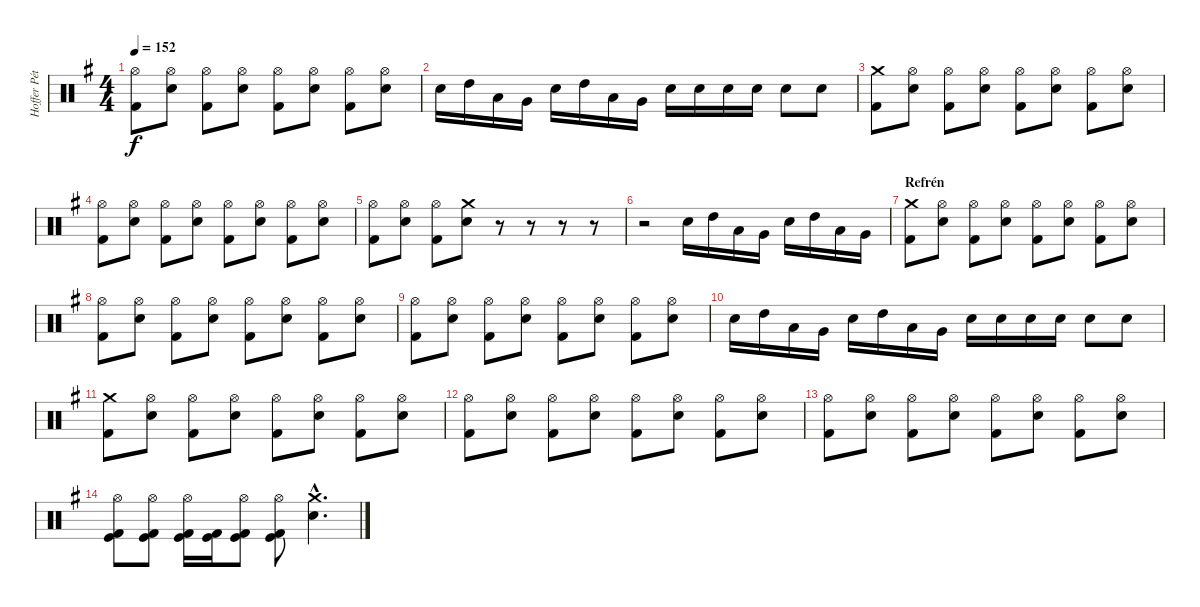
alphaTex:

\track ("Hoffer Péter" "Hoffer Pét") {instrument percussion}
\staff {score}
\articulation defaults
\ts (4 4)
\tempo 152
\clef neutral
\ks eminor
("Hi-Hat (open)" "Kick (hit) 2").8{dy f} ("Hi-Hat (open)" "Snare (hit) 2").8 ("Hi-Hat (open)" "Kick (hit) 2").8 ("Hi-Hat (open)" "Snare (hit) 2").8 ("Hi-Hat (open)" "Kick (hit) 2").8 ("Hi-Hat (open)" "Snare (hit) 2").8 ("Hi-Hat (open)" "Kick (hit) 2").8 ("Hi-Hat (open)" "Snare (hit) 2").8 |
"Snare (hit) 2".16 "High Tom (hit)".16 "Low Tom (hit)".16 "Very Low Tom (hit)".16 "Snare (hit) 2".16 "High Tom (hit)".16 "Low Tom (hit)".16 "Very Low Tom (hit)".16 "Snare (hit) 2".16 "Snare (hit) 2".16 "Snare (hit) 2".16 "Snare (hit) 2".16 "Snare (hit) 2".8 "Snare (hit) 2".8 |
("Crash medium (hit)" "Kick (hit) 2").8 ("Hi-Hat (open)" "Snare (hit) 2").8 ("Hi-Hat (open)" "Kick (hit) 2").8 ("Hi-Hat (open)" "Snare (hit) 2").8 ("Hi-Hat (open)" "Kick (hit) 2").8 ("Hi-Hat (open)" "Snare (hit) 2").8 ("Hi-Hat (open)" "Kick (hit) 2").8 ("Hi-Hat (open)" "Snare (hit) 2").8 |
("Hi-Hat (open)" "Kick (hit) 2").8 ("Hi-Hat (open)" "Snare (hit) 2").8 ("Hi-Hat (open)" "Kick (hit) 2").8 ("Hi-Hat (open)" "Snare (hit) 2").8 ("Hi-Hat (open)" "Kick (hit) 2").8 ("Hi-Hat (open)" "Snare (hit) 2").8 ("Hi-Hat (open)" "Kick (hit) 2").8 ("Hi-Hat (open)" "Snare (hit) 2").8 |
("Hi-Hat (open)" "Kick (hit) 2").8 ("Hi-Hat (open)" "Snare (hit) 2").8 ("Hi-Hat (open)" "Kick (hit) 2").8 ("Crash medium (hit)" "Snare (hit) 2").8 r.8 r.8 r.8 r.8 |
r.2 "Snare (hit) 2".16 "High Tom (hit)".16 "Low Tom (hit)".16 "Very Low Tom (hit)".16 "Snare (hit) 2".16 "High Tom (hit)".16 "Low Tom (hit)".16 "Very Low Tom (hit)".16 |
\section ("" "Refrén")
("Crash medium (hit)" "Kick (hit) 2").8 ("Hi-Hat (open)" "Snare (hit) 2").8 ("Hi-Hat (open)" "Kick (hit) 2").8 ("Hi-Hat (open)" "Snare (hit) 2").8 ("Hi-Hat (open)" "Kick (hit) 2").8 ("Hi-Hat (open)" "Snare (hit) 2").8 ("Hi-Hat (open)" "Kick (hit) 2").8 ("Hi-Hat (open)" "Snare (hit) 2").8 |
("Hi-Hat (open)" "Kick (hit) 2").8 ("Hi-Hat (open)" "Snare (hit) 2").8 ("Hi-Hat (open)" "Kick (hit) 2").8 ("Hi-Hat (open)" "Snare (hit) 2").8 ("Hi-Hat (open)" "Kick (hit) 2").8 ("Hi-Hat (open)" "Snare (hit) 2").8 ("Hi-Hat (open)" "Kick (hit) 2").8 ("Hi-Hat (open)" "Snare (hit) 2").8 |
("Hi-Hat (open)" "Kick (hit) 2").8 ("Hi-Hat (open)" "Snare (hit) 2").8 ("Hi-Hat (open)" "Kick (hit) 2").8 ("Hi-Hat (open)" "Snare (hit) 2").8 ("Hi-Hat (open)" "Kick (hit) 2").8 ("Hi-Hat (open)" "Snare (hit) 2").8 ("Hi-Hat (open)" "Kick (hit) 2").8 ("Hi-Hat (open)" "Snare (hit) 2").8 |
"Snare (hit) 2".16 "High Tom (hit)".16 "Low Tom (hit)".16 "Very Low Tom (hit)".16 "Snare (hit) 2".16 "High Tom (hit)".16 "Low Tom (hit)".16 "Very Low Tom (hit)".16 "Snare (hit) 2".16 "Snare (hit) 2".16 "Snare (hit) 2".16 "Snare (hit) 2".16 "Snare (hit) 2".8 "Snare (hit) 2".8 |
("Crash medium (hit)" "Kick (hit) 2").8 ("Hi-Hat (open)" "Snare (hit) 2").8 ("Hi-Hat (open)" "Kick (hit) 2").8 ("Hi-Hat (open)" "Snare (hit) 2").8 ("Hi-Hat (open)" "Kick (hit) 2").8 ("Hi-Hat (open)" "Snare (hit) 2").8 ("Hi-Hat (open)" "Kick (hit) 2").8 ("Hi-Hat (open)" "Snare (hit) 2").8 |
("Hi-Hat (open)" "Kick (hit) 2").8 ("Hi-Hat (open)" "Snare (hit) 2").8 ("Hi-Hat (open)" "Kick (hit) 2").8 ("Hi-Hat (open)" "Snare (hit) 2").8 ("Hi-Hat (open)" "Kick (hit) 2").8 ("Hi-Hat (open)" "Snare (hit) 2").8 ("Hi-Hat (open)" "Kick (hit) 2").8 ("Hi-Hat (open)" "Snare (hit) 2").8 |
("Hi-Hat (open)" "Kick (hit) 2").8 ("Hi-Hat (open)" "Snare (hit) 2").8 ("Hi-Hat (open)" "Kick (hit) 2").8 ("Hi-Hat (open)" "Snare (hit) 2").8 ("Hi-Hat (open)" "Kick (hit) 2").8 ("Hi-Hat (open)" "Snare (hit) 2").8 ("Hi-Hat (open)" "Kick (hit) 2").8 ("Hi-Hat (open)" "Snare (hit) 2").8 |
("Hi-Hat (open)" "Kick (hit) 2" "Kick (hit)").8 ("Hi-Hat (open)" "Kick (hit) 2" "Kick (hit)").8 ("Hi-Hat (open)" "Kick (hit) 2" "Kick (hit)").16 ("Kick (hit) 2" "Kick (hit)").16 ("Hi-Hat (open)" "Kick (hit) 2" "Kick (hit)").8 ("Hi-Hat (open)" "Kick (hit) 2" "Kick (hit)").8 ("Crash medium (hit)"{hac} "Snare (hit) 2"{hac}).4{d}
